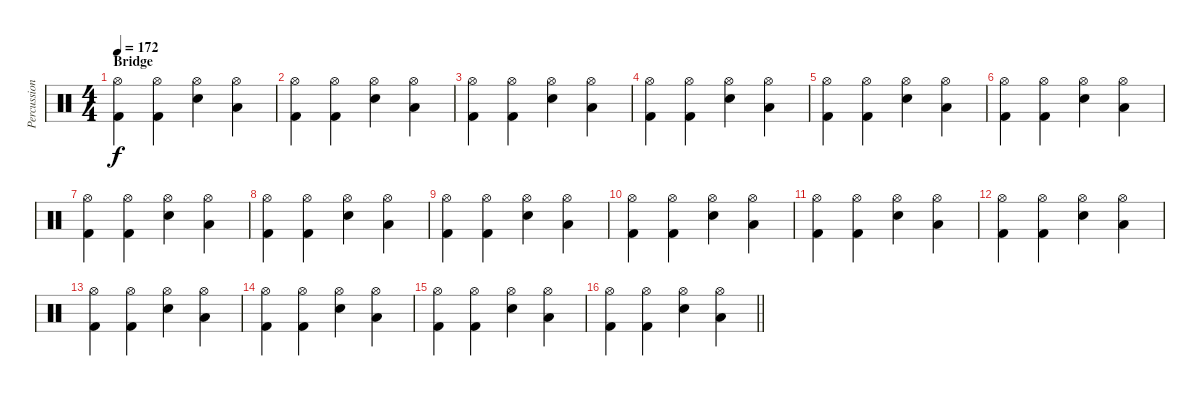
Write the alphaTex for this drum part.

\track ("Percussion" "Percussion") {instrument percussion}
\staff {score}
\articulation defaults
\ts (4 4)
\section ("" "Bridge")
\tempo 172
\clef neutral
\ks c
("Hi-Hat (open)" "Kick (hit) 2").4{dy f} ("Hi-Hat (open)" "Kick (hit) 2").4 ("Hi-Hat (open)" "Electric Snare (hit)").4 ("Hi-Hat (open)" "Low Tom (hit)").4 |
("Hi-Hat (open)" "Kick (hit) 2").4 ("Hi-Hat (open)" "Kick (hit) 2").4 ("Hi-Hat (open)" "Electric Snare (hit)").4 ("Hi-Hat (open)" "Low Tom (hit)").4 |
("Hi-Hat (open)" "Kick (hit) 2").4 ("Hi-Hat (open)" "Kick (hit) 2").4 ("Hi-Hat (open)" "Electric Snare (hit)").4 ("Hi-Hat (open)" "Low Tom (hit)").4 |
("Hi-Hat (open)" "Kick (hit) 2").4 ("Hi-Hat (open)" "Kick (hit) 2").4 ("Hi-Hat (open)" "Electric Snare (hit)").4 ("Hi-Hat (open)" "Low Tom (hit)").4 |
("Hi-Hat (open)" "Kick (hit) 2").4 ("Hi-Hat (open)" "Kick (hit) 2").4 ("Hi-Hat (open)" "Electric Snare (hit)").4 ("Hi-Hat (open)" "Low Tom (hit)").4 |
("Hi-Hat (open)" "Kick (hit) 2").4 ("Hi-Hat (open)" "Kick (hit) 2").4 ("Hi-Hat (open)" "Electric Snare (hit)").4 ("Hi-Hat (open)" "Low Tom (hit)").4 |
("Hi-Hat (open)" "Kick (hit) 2").4 ("Hi-Hat (open)" "Kick (hit) 2").4 ("Hi-Hat (open)" "Electric Snare (hit)").4 ("Hi-Hat (open)" "Low Tom (hit)").4 |
("Hi-Hat (open)" "Kick (hit) 2").4 ("Hi-Hat (open)" "Kick (hit) 2").4 ("Hi-Hat (open)" "Electric Snare (hit)").4 ("Hi-Hat (open)" "Low Tom (hit)").4 |
("Hi-Hat (open)" "Kick (hit) 2").4 ("Hi-Hat (open)" "Kick (hit) 2").4 ("Hi-Hat (open)" "Electric Snare (hit)").4 ("Hi-Hat (open)" "Low Tom (hit)").4 |
("Hi-Hat (open)" "Kick (hit) 2").4 ("Hi-Hat (open)" "Kick (hit) 2").4 ("Hi-Hat (open)" "Electric Snare (hit)").4 ("Hi-Hat (open)" "Low Tom (hit)").4 |
("Hi-Hat (open)" "Kick (hit) 2").4 ("Hi-Hat (open)" "Kick (hit) 2").4 ("Hi-Hat (open)" "Electric Snare (hit)").4 ("Hi-Hat (open)" "Low Tom (hit)").4 |
("Hi-Hat (open)" "Kick (hit) 2").4 ("Hi-Hat (open)" "Kick (hit) 2").4 ("Hi-Hat (open)" "Electric Snare (hit)").4 ("Hi-Hat (open)" "Low Tom (hit)").4 |
("Hi-Hat (open)" "Kick (hit) 2").4 ("Hi-Hat (open)" "Kick (hit) 2").4 ("Hi-Hat (open)" "Electric Snare (hit)").4 ("Hi-Hat (open)" "Low Tom (hit)").4 |
("Hi-Hat (open)" "Kick (hit) 2").4 ("Hi-Hat (open)" "Kick (hit) 2").4 ("Hi-Hat (open)" "Electric Snare (hit)").4 ("Hi-Hat (open)" "Low Tom (hit)").4 |
("Hi-Hat (open)" "Kick (hit) 2").4 ("Hi-Hat (open)" "Kick (hit) 2").4 ("Hi-Hat (open)" "Electric Snare (hit)").4 ("Hi-Hat (open)" "Low Tom (hit)").4 |
\barLineRight lightlight
("Hi-Hat (open)" "Kick (hit) 2").4 ("Hi-Hat (open)" "Kick (hit) 2").4 ("Hi-Hat (open)" "Electric Snare (hit)").4 ("Hi-Hat (open)" "Low Tom (hit)").4
